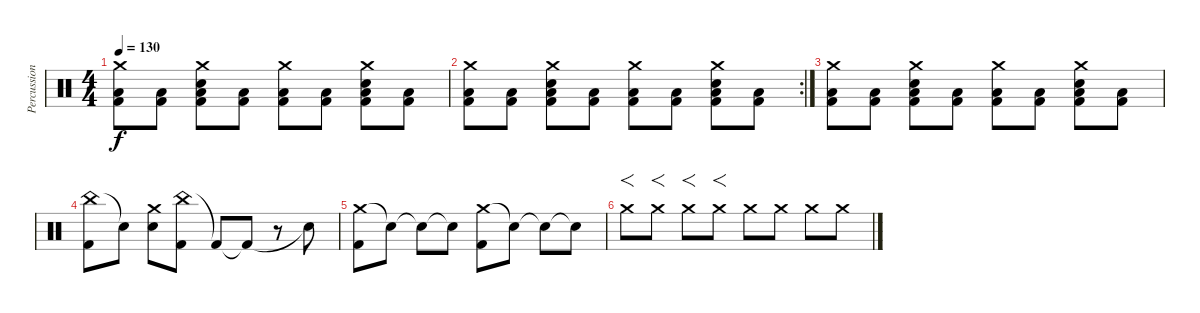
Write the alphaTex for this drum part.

\track ("Percussion" "Percussion") {instrument percussion}
\staff {score}
\articulation defaults
\ts (4 4)
\tempo 130
\clef neutral
\ks c
("Crash medium (hit)" "Low Floor Tom (hit)" "Kick (hit) 2").8{dy f} ("Low Floor Tom (hit)" "Kick (hit) 2").8 ("Crash medium (hit)" "Low Floor Tom (hit)" "Electric Snare (hit)" "Kick (hit) 2").8 ("Low Floor Tom (hit)" "Kick (hit) 2").8 ("Crash medium (hit)" "Low Floor Tom (hit)" "Kick (hit) 2").8 ("Low Floor Tom (hit)" "Kick (hit) 2").8 ("Crash medium (hit)" "Low Floor Tom (hit)" "Electric Snare (hit)" "Kick (hit) 2").8 ("Low Floor Tom (hit)" "Kick (hit) 2").8 |
\rc 2
("Crash medium (hit)" "Low Floor Tom (hit)" "Kick (hit) 2").8 ("Low Floor Tom (hit)" "Kick (hit) 2").8 ("Crash medium (hit)" "Low Floor Tom (hit)" "Electric Snare (hit)" "Kick (hit) 2").8 ("Low Floor Tom (hit)" "Kick (hit) 2").8 ("Crash medium (hit)" "Low Floor Tom (hit)" "Kick (hit) 2").8 ("Low Floor Tom (hit)" "Kick (hit) 2").8 ("Crash medium (hit)" "Low Floor Tom (hit)" "Electric Snare (hit)" "Kick (hit) 2").8 ("Low Floor Tom (hit)" "Kick (hit) 2").8 |
("Crash medium (hit)" "Low Floor Tom (hit)" "Kick (hit) 2").8 ("Low Floor Tom (hit)" "Kick (hit) 2").8 ("Crash medium (hit)" "Low Floor Tom (hit)" "Electric Snare (hit)" "Kick (hit) 2").8 ("Low Floor Tom (hit)" "Kick (hit) 2").8 ("Crash medium (hit)" "Low Floor Tom (hit)" "Kick (hit) 2").8 ("Low Floor Tom (hit)" "Kick (hit) 2").8 ("Crash medium (hit)" "Low Floor Tom (hit)" "Electric Snare (hit)" "Kick (hit) 2").8 ("Low Floor Tom (hit)" "Kick (hit) 2").8 |
("China (hit)" "Kick (hit) 2").8 "Snare (hit)"{t}.8 ("Crash medium (hit)" "Electric Snare (hit)").8 ("China (hit)" "Kick (hit) 2").8 "Kick (hit) 2"{t}.8 "Kick (hit) 2"{t}.8 r.8 "Snare (hit)"{t}.8 |
("Crash medium (hit)" "Kick (hit) 2").8 "Snare (hit)"{t}.8 "Snare (hit)"{t}.8 "Snare (hit)"{t}.8 ("Crash medium (hit)" "Kick (hit) 2").8 "Snare (hit)"{t}.8 "Snare (hit)"{t}.8 "Snare (hit)"{t}.8 |
"Crash medium (hit)".8{f} "Crash medium (hit)".8{f} "Crash medium (hit)".8{f} "Crash medium (hit)".8{f} "Crash medium (hit)".8 "Crash medium (hit)".8 "Crash medium (hit)".8 "Crash medium (hit)".8
